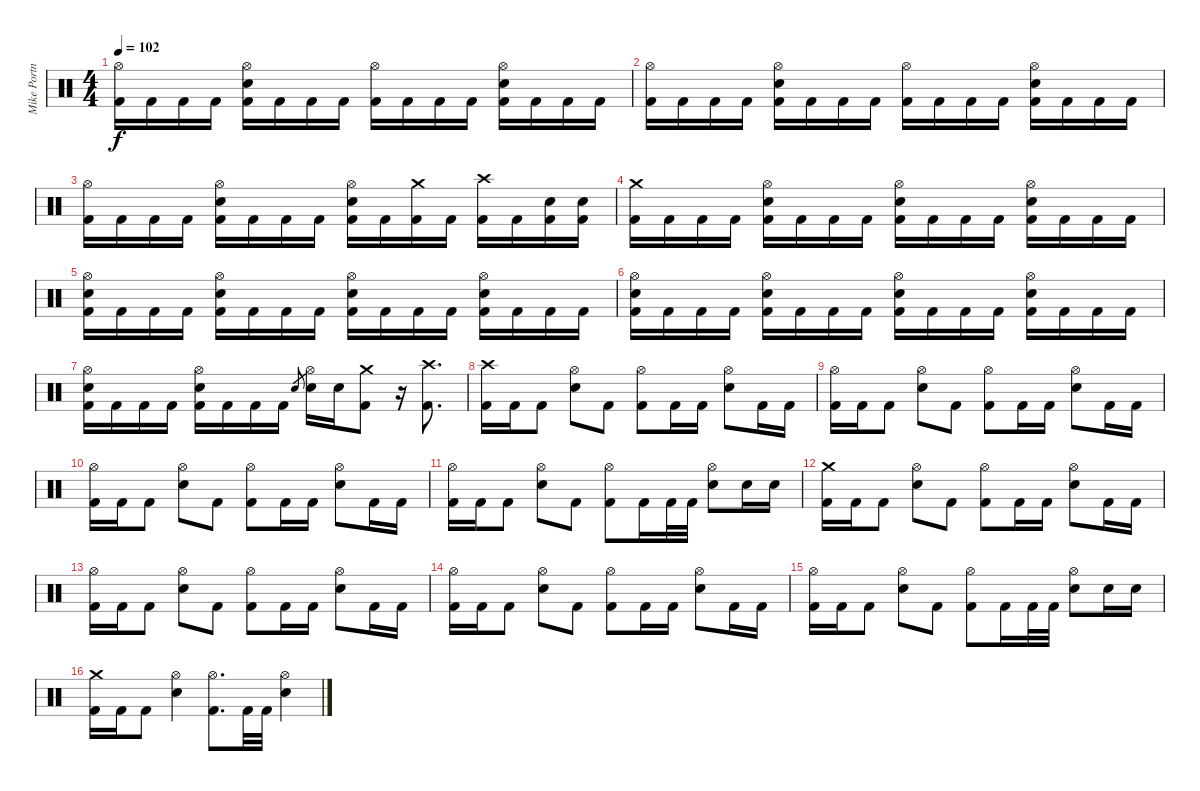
\track ("Mike Portnoy Drum " "Mike Portn") {instrument percussion}
\staff {score}
\articulation defaults
\ts (4 4)
\tempo 102
\clef neutral
\ks c
("Hi-Hat (open)" "Kick (hit) 2").16{dy f} "Kick (hit) 2".16 "Kick (hit) 2".16 "Kick (hit) 2".16 ("Hi-Hat (open)" "Electric Snare (hit)" "Kick (hit) 2").16 "Kick (hit) 2".16 "Kick (hit) 2".16 "Kick (hit) 2".16 ("Hi-Hat (open)" "Kick (hit) 2").16 "Kick (hit) 2".16 "Kick (hit) 2".16 "Kick (hit) 2".16 ("Hi-Hat (open)" "Electric Snare (hit)" "Kick (hit) 2").16 "Kick (hit) 2".16 "Kick (hit) 2".16 "Kick (hit) 2".16 |
("Hi-Hat (open)" "Kick (hit) 2").16 "Kick (hit) 2".16 "Kick (hit) 2".16 "Kick (hit) 2".16 ("Hi-Hat (open)" "Electric Snare (hit)" "Kick (hit) 2").16 "Kick (hit) 2".16 "Kick (hit) 2".16 "Kick (hit) 2".16 ("Hi-Hat (open)" "Kick (hit) 2").16 "Kick (hit) 2".16 "Kick (hit) 2".16 "Kick (hit) 2".16 ("Hi-Hat (open)" "Electric Snare (hit)" "Kick (hit) 2").16 "Kick (hit) 2".16 "Kick (hit) 2".16 "Kick (hit) 2".16 |
("Hi-Hat (open)" "Kick (hit) 2").16 "Kick (hit) 2".16 "Kick (hit) 2".16 "Kick (hit) 2".16 ("Hi-Hat (open)" "Electric Snare (hit)" "Kick (hit) 2").16 "Kick (hit) 2".16 "Kick (hit) 2".16 "Kick (hit) 2".16 ("Hi-Hat (open)" "Electric Snare (hit)" "Kick (hit) 2").16 "Kick (hit) 2".16 ("Crash medium (hit)" "Kick (hit) 2").16 "Kick (hit) 2".16 ("Crash high (hit)" "Kick (hit) 2").16 "Kick (hit) 2".16 ("Electric Snare (hit)" "Kick (hit) 2").16 ("Electric Snare (hit)" "Kick (hit) 2").16 |
("Crash medium (hit)" "Kick (hit) 2").16 "Kick (hit) 2".16 "Kick (hit) 2".16 "Kick (hit) 2".16 ("Hi-Hat (open)" "Electric Snare (hit)" "Kick (hit) 2").16 "Kick (hit) 2".16 "Kick (hit) 2".16 "Kick (hit) 2".16 ("Hi-Hat (open)" "Electric Snare (hit)" "Kick (hit) 2").16 "Kick (hit) 2".16 "Kick (hit) 2".16 "Kick (hit) 2".16 ("Hi-Hat (open)" "Electric Snare (hit)" "Kick (hit) 2").16 "Kick (hit) 2".16 "Kick (hit) 2".16 "Kick (hit) 2".16 |
("Hi-Hat (open)" "Electric Snare (hit)" "Kick (hit) 2").16 "Kick (hit) 2".16 "Kick (hit) 2".16 "Kick (hit) 2".16 ("Hi-Hat (open)" "Electric Snare (hit)" "Kick (hit) 2").16 "Kick (hit) 2".16 "Kick (hit) 2".16 "Kick (hit) 2".16 ("Hi-Hat (open)" "Electric Snare (hit)" "Kick (hit) 2").16 "Kick (hit) 2".16 "Kick (hit) 2".16 "Kick (hit) 2".16 ("Hi-Hat (open)" "Electric Snare (hit)" "Kick (hit) 2").16 "Kick (hit) 2".16 "Kick (hit) 2".16 "Kick (hit) 2".16 |
("Hi-Hat (open)" "Electric Snare (hit)" "Kick (hit) 2").16 "Kick (hit) 2".16 "Kick (hit) 2".16 "Kick (hit) 2".16 ("Hi-Hat (open)" "Electric Snare (hit)" "Kick (hit) 2").16 "Kick (hit) 2".16 "Kick (hit) 2".16 "Kick (hit) 2".16 ("Hi-Hat (open)" "Electric Snare (hit)" "Kick (hit) 2").16 "Kick (hit) 2".16 "Kick (hit) 2".16 "Kick (hit) 2".16 ("Hi-Hat (open)" "Electric Snare (hit)" "Kick (hit) 2").16 "Kick (hit) 2".16 "Kick (hit) 2".16 "Kick (hit) 2".16 |
("Hi-Hat (open)" "Electric Snare (hit)" "Kick (hit) 2").16 "Kick (hit) 2".16 "Kick (hit) 2".16 "Kick (hit) 2".16 ("Hi-Hat (open)" "Electric Snare (hit)" "Kick (hit) 2").16 "Kick (hit) 2".16 "Kick (hit) 2".16 "Kick (hit) 2".16 "Electric Snare (hit)".8{gr} ("Hi-Hat (open)" "Electric Snare (hit)").16 "Electric Snare (hit)".16 ("Crash medium (hit)" "Kick (hit) 2").8 r.16 ("Crash high (hit)" "Kick (hit) 2").8{d} |
("Crash high (hit)" "Kick (hit) 2").16 "Kick (hit) 2".16 "Kick (hit) 2".8 ("Hi-Hat (open)" "Electric Snare (hit)").8 "Kick (hit) 2".8 ("Hi-Hat (open)" "Kick (hit) 2").8 "Kick (hit) 2".16 "Kick (hit) 2".16 ("Hi-Hat (open)" "Electric Snare (hit)").8 "Kick (hit) 2".16 "Kick (hit) 2".16 |
("Hi-Hat (open)" "Kick (hit) 2").16 "Kick (hit) 2".16 "Kick (hit) 2".8 ("Hi-Hat (open)" "Electric Snare (hit)").8 "Kick (hit) 2".8 ("Hi-Hat (open)" "Kick (hit) 2").8 "Kick (hit) 2".16 "Kick (hit) 2".16 ("Hi-Hat (open)" "Electric Snare (hit)").8 "Kick (hit) 2".16 "Kick (hit) 2".16 |
("Hi-Hat (open)" "Kick (hit) 2").16 "Kick (hit) 2".16 "Kick (hit) 2".8 ("Hi-Hat (open)" "Electric Snare (hit)").8 "Kick (hit) 2".8 ("Hi-Hat (open)" "Kick (hit) 2").8 "Kick (hit) 2".16 "Kick (hit) 2".16 ("Hi-Hat (open)" "Electric Snare (hit)").8 "Kick (hit) 2".16 "Kick (hit) 2".16 |
("Hi-Hat (open)" "Kick (hit) 2").16 "Kick (hit) 2".16 "Kick (hit) 2".8 ("Hi-Hat (open)" "Electric Snare (hit)").8 "Kick (hit) 2".8 ("Hi-Hat (open)" "Kick (hit) 2").8 "Kick (hit) 2".16 "Kick (hit) 2".32 "Kick (hit) 2".32 ("Hi-Hat (open)" "Electric Snare (hit)").8 "Electric Snare (hit)".16 "Electric Snare (hit)".16 |
("Crash medium (hit)" "Kick (hit) 2").16 "Kick (hit) 2".16 "Kick (hit) 2".8 ("Hi-Hat (open)" "Electric Snare (hit)").8 "Kick (hit) 2".8 ("Hi-Hat (open)" "Kick (hit) 2").8 "Kick (hit) 2".16 "Kick (hit) 2".16 ("Hi-Hat (open)" "Electric Snare (hit)").8 "Kick (hit) 2".16 "Kick (hit) 2".16 |
("Hi-Hat (open)" "Kick (hit) 2").16 "Kick (hit) 2".16 "Kick (hit) 2".8 ("Hi-Hat (open)" "Electric Snare (hit)").8 "Kick (hit) 2".8 ("Hi-Hat (open)" "Kick (hit) 2").8 "Kick (hit) 2".16 "Kick (hit) 2".16 ("Hi-Hat (open)" "Electric Snare (hit)").8 "Kick (hit) 2".16 "Kick (hit) 2".16 |
("Hi-Hat (open)" "Kick (hit) 2").16 "Kick (hit) 2".16 "Kick (hit) 2".8 ("Hi-Hat (open)" "Electric Snare (hit)").8 "Kick (hit) 2".8 ("Hi-Hat (open)" "Kick (hit) 2").8 "Kick (hit) 2".16 "Kick (hit) 2".16 ("Hi-Hat (open)" "Electric Snare (hit)").8 "Kick (hit) 2".16 "Kick (hit) 2".16 |
("Hi-Hat (open)" "Kick (hit) 2").16 "Kick (hit) 2".16 "Kick (hit) 2".8 ("Hi-Hat (open)" "Electric Snare (hit)").8 "Kick (hit) 2".8 ("Hi-Hat (open)" "Kick (hit) 2").8 "Kick (hit) 2".16 "Kick (hit) 2".32 "Kick (hit) 2".32 ("Hi-Hat (open)" "Electric Snare (hit)").8 "Electric Snare (hit)".16 "Electric Snare (hit)".16 |
("Crash medium (hit)" "Kick (hit) 2").16 "Kick (hit) 2".16 "Kick (hit) 2".8 ("Hi-Hat (open)" "Electric Snare (hit)").4 ("Hi-Hat (open)" "Kick (hit) 2").8{d} "Kick (hit) 2".32 "Kick (hit) 2".32 ("Hi-Hat (open)" "Electric Snare (hit)").4
